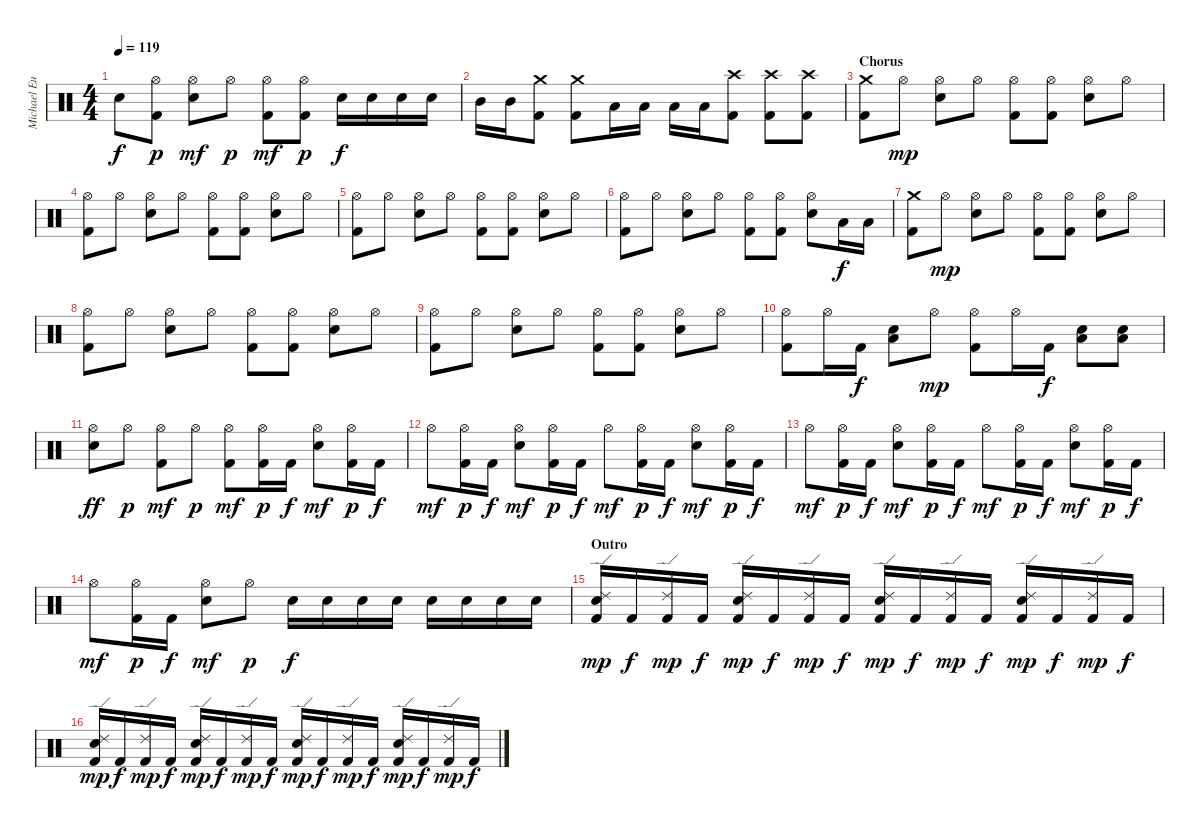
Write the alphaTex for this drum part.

\track ("Michael Eurich" "Michael Eu") {instrument percussion}
\staff {score}
\articulation defaults
\ts (4 4)
\tempo 119
\clef neutral
\ks c "Snare (hit)"{t}.8{dy f}
("Kick (hit) 2" "Hi-Hat (open)").8{dy p} ("Hi-Hat (open)" "Snare (hit) 2").8{dy mf} "Hi-Hat (open)".8{dy p} ("Kick (hit) 2" "Hi-Hat (open)").8{dy mf} ("Kick (hit) 2" "Hi-Hat (open)").8{dy p} "Snare (hit) 2".16{dy f} "Snare (hit) 2".16 "Snare (hit) 2".16 "Snare (hit) 2".16 |
"Mid Tom (hit)".16 "Mid Tom (hit)".16 ("Kick (hit) 2" "Crash medium (hit)").8 ("Kick (hit) 2" "Crash medium (hit)").8 "Low Tom (hit)".16 "Low Tom (hit)".16 "Low Tom (hit)".16 "Low Tom (hit)".16 ("Kick (hit) 2" "Crash high (hit)").8 ("Kick (hit) 2" "Crash high (hit)").8 ("Kick (hit) 2" "Crash high (hit)").8 |
\section ("" "Chorus")
("Kick (hit) 2" "Crash medium (hit)").8 "Hi-Hat (open)".8{dy mp} ("Hi-Hat (open)" "Snare (hit) 2").8 "Hi-Hat (open)".8 ("Kick (hit) 2" "Hi-Hat (open)").8 ("Kick (hit) 2" "Hi-Hat (open)").8 ("Hi-Hat (open)" "Snare (hit) 2").8 "Hi-Hat (open)".8 |
("Kick (hit) 2" "Hi-Hat (open)").8 "Hi-Hat (open)".8 ("Hi-Hat (open)" "Snare (hit) 2").8 "Hi-Hat (open)".8 ("Kick (hit) 2" "Hi-Hat (open)").8 ("Kick (hit) 2" "Hi-Hat (open)").8 ("Hi-Hat (open)" "Snare (hit) 2").8 "Hi-Hat (open)".8 |
("Kick (hit) 2" "Hi-Hat (open)").8 "Hi-Hat (open)".8 ("Hi-Hat (open)" "Snare (hit) 2").8 "Hi-Hat (open)".8 ("Kick (hit) 2" "Hi-Hat (open)").8 ("Kick (hit) 2" "Hi-Hat (open)").8 ("Hi-Hat (open)" "Snare (hit) 2").8 "Hi-Hat (open)".8 |
("Kick (hit) 2" "Hi-Hat (open)").8 "Hi-Hat (open)".8 ("Hi-Hat (open)" "Snare (hit) 2").8 "Hi-Hat (open)".8 ("Kick (hit) 2" "Hi-Hat (open)").8 ("Kick (hit) 2" "Hi-Hat (open)").8 ("Hi-Hat (open)" "Snare (hit) 2").8 "Low Tom (hit)".16{dy f} "Low Tom (hit)".16 |
("Kick (hit) 2" "Crash medium (hit)").8 "Hi-Hat (open)".8{dy mp} ("Hi-Hat (open)" "Snare (hit) 2").8 "Hi-Hat (open)".8 ("Kick (hit) 2" "Hi-Hat (open)").8 ("Kick (hit) 2" "Hi-Hat (open)").8 ("Hi-Hat (open)" "Snare (hit) 2").8 "Hi-Hat (open)".8 |
("Kick (hit) 2" "Hi-Hat (open)").8 "Hi-Hat (open)".8 ("Hi-Hat (open)" "Snare (hit) 2").8 "Hi-Hat (open)".8 ("Kick (hit) 2" "Hi-Hat (open)").8 ("Kick (hit) 2" "Hi-Hat (open)").8 ("Hi-Hat (open)" "Snare (hit) 2").8 "Hi-Hat (open)".8 |
("Kick (hit) 2" "Hi-Hat (open)").8 "Hi-Hat (open)".8 ("Hi-Hat (open)" "Snare (hit) 2").8 "Hi-Hat (open)".8 ("Kick (hit) 2" "Hi-Hat (open)").8 ("Kick (hit) 2" "Hi-Hat (open)").8 ("Hi-Hat (open)" "Snare (hit) 2").8 "Hi-Hat (open)".8 |
("Kick (hit) 2" "Hi-Hat (open)").8 "Hi-Hat (open)".16 "Kick (hit) 2".16{dy f} ("Low Tom (hit)" "Snare (hit) 2").8 "Hi-Hat (open)".8{dy mp} ("Kick (hit) 2" "Hi-Hat (open)").8 "Hi-Hat (open)".16 "Kick (hit) 2".16{dy f} ("Low Tom (hit)" "Snare (hit) 2").8 ("Low Tom (hit)" "Snare (hit) 2").8 |
("Hi-Hat (open)" "Snare (hit) 2").8{dy ff} "Hi-Hat (open)".8{dy p} ("Kick (hit) 2" "Hi-Hat (open)").8{dy mf} "Hi-Hat (open)".8{dy p} ("Kick (hit) 2" "Hi-Hat (open)").8{dy mf} ("Kick (hit) 2" "Hi-Hat (open)").16{dy p} "Kick (hit) 2".16{dy f} ("Hi-Hat (open)" "Snare (hit) 2").8{dy mf} ("Kick (hit) 2" "Hi-Hat (open)").16{dy p} "Kick (hit) 2".16{dy f} |
"Hi-Hat (open)".8{dy mf} ("Kick (hit) 2" "Hi-Hat (open)").16{dy p} "Kick (hit) 2".16{dy f} ("Hi-Hat (open)" "Snare (hit) 2").8{dy mf} ("Kick (hit) 2" "Hi-Hat (open)").16{dy p} "Kick (hit) 2".16{dy f} "Hi-Hat (open)".8{dy mf} ("Kick (hit) 2" "Hi-Hat (open)").16{dy p} "Kick (hit) 2".16{dy f} ("Hi-Hat (open)" "Snare (hit) 2").8{dy mf} ("Kick (hit) 2" "Hi-Hat (open)").16{dy p} "Kick (hit) 2".16{dy f} |
"Hi-Hat (open)".8{dy mf} ("Kick (hit) 2" "Hi-Hat (open)").16{dy p} "Kick (hit) 2".16{dy f} ("Hi-Hat (open)" "Snare (hit) 2").8{dy mf} ("Kick (hit) 2" "Hi-Hat (open)").16{dy p} "Kick (hit) 2".16{dy f} "Hi-Hat (open)".8{dy mf} ("Kick (hit) 2" "Hi-Hat (open)").16{dy p} "Kick (hit) 2".16{dy f} ("Hi-Hat (open)" "Snare (hit) 2").8{dy mf} ("Kick (hit) 2" "Hi-Hat (open)").16{dy p} "Kick (hit) 2".16{dy f} |
"Hi-Hat (open)".8{dy mf} ("Kick (hit) 2" "Hi-Hat (open)").16{dy p} "Kick (hit) 2".16{dy f} ("Hi-Hat (open)" "Snare (hit) 2").8{dy mf} "Hi-Hat (open)".8{dy p} "Snare (hit) 2".16{dy f} "Snare (hit) 2".16 "Snare (hit) 2".16 "Snare (hit) 2".16 "Snare (hit) 2".16 "Snare (hit) 2".16 "Snare (hit) 2".16 "Snare (hit) 2".16 |
\section ("" "Outro")
("Kick (hit) 2" "Ride (edge) 2" "Snare (hit) 2").16{dy mp} "Kick (hit) 2".16{dy f} ("Kick (hit) 2" "Ride (edge) 2").16{dy mp} "Kick (hit) 2".16{dy f} ("Kick (hit) 2" "Ride (edge) 2" "Snare (hit) 2").16{dy mp} "Kick (hit) 2".16{dy f} ("Kick (hit) 2" "Ride (edge) 2").16{dy mp} "Kick (hit) 2".16{dy f} ("Kick (hit) 2" "Ride (edge) 2" "Snare (hit) 2").16{dy mp} "Kick (hit) 2".16{dy f} ("Kick (hit) 2" "Ride (edge) 2").16{dy mp} "Kick (hit) 2".16{dy f} ("Kick (hit) 2" "Ride (edge) 2" "Snare (hit) 2").16{dy mp} "Kick (hit) 2".16{dy f} ("Kick (hit) 2" "Ride (edge) 2").16{dy mp} "Kick (hit) 2".16{dy f} |
("Kick (hit) 2" "Ride (edge) 2" "Snare (hit) 2").16{dy mp} "Kick (hit) 2".16{dy f} ("Kick (hit) 2" "Ride (edge) 2").16{dy mp} "Kick (hit) 2".16{dy f} ("Kick (hit) 2" "Ride (edge) 2" "Snare (hit) 2").16{dy mp} "Kick (hit) 2".16{dy f} ("Kick (hit) 2" "Ride (edge) 2").16{dy mp} "Kick (hit) 2".16{dy f} ("Kick (hit) 2" "Ride (edge) 2" "Snare (hit) 2").16{dy mp} "Kick (hit) 2".16{dy f} ("Kick (hit) 2" "Ride (edge) 2").16{dy mp} "Kick (hit) 2".16{dy f} ("Kick (hit) 2" "Ride (edge) 2" "Snare (hit) 2").16{dy mp} "Kick (hit) 2".16{dy f} ("Kick (hit) 2" "Ride (edge) 2").16{dy mp} "Kick (hit) 2".16{dy f}
